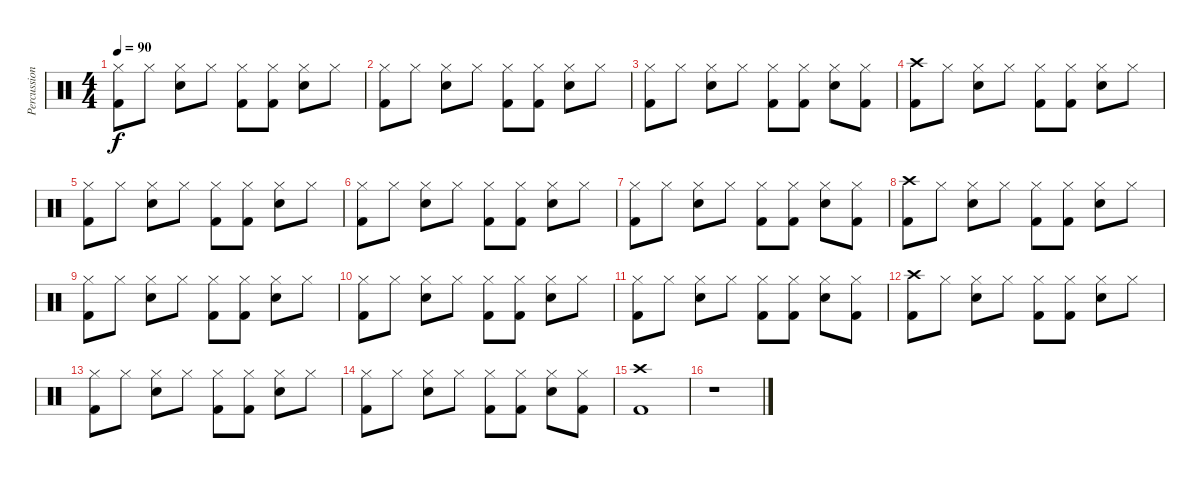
\track ("Percussion" "Percussion") {instrument percussion}
\staff {score}
\articulation defaults
\ts (4 4)
\tempo 90
\clef neutral
\ks c
("Hi-Hat (closed)" "Kick (hit) 2").8{dy f} "Hi-Hat (closed)".8 ("Hi-Hat (closed)" "Snare (hit) 2").8 "Hi-Hat (closed)".8 ("Hi-Hat (closed)" "Kick (hit) 2").8 ("Hi-Hat (closed)" "Kick (hit) 2").8 ("Hi-Hat (closed)" "Snare (hit) 2").8 "Hi-Hat (closed)".8 |
("Hi-Hat (closed)" "Kick (hit) 2").8 "Hi-Hat (closed)".8 ("Hi-Hat (closed)" "Snare (hit) 2").8 "Hi-Hat (closed)".8 ("Hi-Hat (closed)" "Kick (hit) 2").8 ("Hi-Hat (closed)" "Kick (hit) 2").8 ("Hi-Hat (closed)" "Snare (hit) 2").8 "Hi-Hat (closed)".8 |
("Hi-Hat (closed)" "Kick (hit) 2").8 "Hi-Hat (closed)".8 ("Hi-Hat (closed)" "Snare (hit) 2").8 "Hi-Hat (closed)".8 ("Hi-Hat (closed)" "Kick (hit) 2").8 ("Hi-Hat (closed)" "Kick (hit) 2").8 ("Hi-Hat (closed)" "Snare (hit) 2").8 ("Hi-Hat (closed)" "Kick (hit) 2").8 |
("Crash high (hit)" "Kick (hit) 2").8 "Hi-Hat (closed)".8 ("Hi-Hat (closed)" "Snare (hit) 2").8 "Hi-Hat (closed)".8 ("Hi-Hat (closed)" "Kick (hit) 2").8 ("Hi-Hat (closed)" "Kick (hit) 2").8 ("Hi-Hat (closed)" "Snare (hit) 2").8 "Hi-Hat (closed)".8 |
("Hi-Hat (closed)" "Kick (hit) 2").8 "Hi-Hat (closed)".8 ("Hi-Hat (closed)" "Snare (hit) 2").8 "Hi-Hat (closed)".8 ("Hi-Hat (closed)" "Kick (hit) 2").8 ("Hi-Hat (closed)" "Kick (hit) 2").8 ("Hi-Hat (closed)" "Snare (hit) 2").8 "Hi-Hat (closed)".8 |
("Hi-Hat (closed)" "Kick (hit) 2").8 "Hi-Hat (closed)".8 ("Hi-Hat (closed)" "Snare (hit) 2").8 "Hi-Hat (closed)".8 ("Hi-Hat (closed)" "Kick (hit) 2").8 ("Hi-Hat (closed)" "Kick (hit) 2").8 ("Hi-Hat (closed)" "Snare (hit) 2").8 "Hi-Hat (closed)".8 |
("Hi-Hat (closed)" "Kick (hit) 2").8 "Hi-Hat (closed)".8 ("Hi-Hat (closed)" "Snare (hit) 2").8 "Hi-Hat (closed)".8 ("Hi-Hat (closed)" "Kick (hit) 2").8 ("Hi-Hat (closed)" "Kick (hit) 2").8 ("Hi-Hat (closed)" "Snare (hit) 2").8 ("Hi-Hat (closed)" "Kick (hit) 2").8 |
("Crash high (hit)" "Kick (hit) 2").8 "Hi-Hat (closed)".8 ("Hi-Hat (closed)" "Snare (hit) 2").8 "Hi-Hat (closed)".8 ("Hi-Hat (closed)" "Kick (hit) 2").8 ("Hi-Hat (closed)" "Kick (hit) 2").8 ("Hi-Hat (closed)" "Snare (hit) 2").8 "Hi-Hat (closed)".8 |
("Hi-Hat (closed)" "Kick (hit) 2").8 "Hi-Hat (closed)".8 ("Hi-Hat (closed)" "Snare (hit) 2").8 "Hi-Hat (closed)".8 ("Hi-Hat (closed)" "Kick (hit) 2").8 ("Hi-Hat (closed)" "Kick (hit) 2").8 ("Hi-Hat (closed)" "Snare (hit) 2").8 "Hi-Hat (closed)".8 |
("Hi-Hat (closed)" "Kick (hit) 2").8 "Hi-Hat (closed)".8 ("Hi-Hat (closed)" "Snare (hit) 2").8 "Hi-Hat (closed)".8 ("Hi-Hat (closed)" "Kick (hit) 2").8 ("Hi-Hat (closed)" "Kick (hit) 2").8 ("Hi-Hat (closed)" "Snare (hit) 2").8 "Hi-Hat (closed)".8 |
("Hi-Hat (closed)" "Kick (hit) 2").8 "Hi-Hat (closed)".8 ("Hi-Hat (closed)" "Snare (hit) 2").8 "Hi-Hat (closed)".8 ("Hi-Hat (closed)" "Kick (hit) 2").8 ("Hi-Hat (closed)" "Kick (hit) 2").8 ("Hi-Hat (closed)" "Snare (hit) 2").8 ("Hi-Hat (closed)" "Kick (hit) 2").8 |
("Crash high (hit)" "Kick (hit) 2").8 "Hi-Hat (closed)".8 ("Hi-Hat (closed)" "Snare (hit) 2").8 "Hi-Hat (closed)".8 ("Hi-Hat (closed)" "Kick (hit) 2").8 ("Hi-Hat (closed)" "Kick (hit) 2").8 ("Hi-Hat (closed)" "Snare (hit) 2").8 "Hi-Hat (closed)".8 |
("Hi-Hat (closed)" "Kick (hit) 2").8 "Hi-Hat (closed)".8 ("Hi-Hat (closed)" "Snare (hit) 2").8 "Hi-Hat (closed)".8 ("Hi-Hat (closed)" "Kick (hit) 2").8 ("Hi-Hat (closed)" "Kick (hit) 2").8 ("Hi-Hat (closed)" "Snare (hit) 2").8 "Hi-Hat (closed)".8 |
("Hi-Hat (closed)" "Kick (hit) 2").8 "Hi-Hat (closed)".8 ("Hi-Hat (closed)" "Snare (hit) 2").8 "Hi-Hat (closed)".8 ("Hi-Hat (closed)" "Kick (hit) 2").8 ("Hi-Hat (closed)" "Kick (hit) 2").8 ("Hi-Hat (closed)" "Snare (hit) 2").8 ("Hi-Hat (closed)" "Kick (hit) 2").8 |
("Crash high (hit)" "Kick (hit) 2").1 |
r.1
